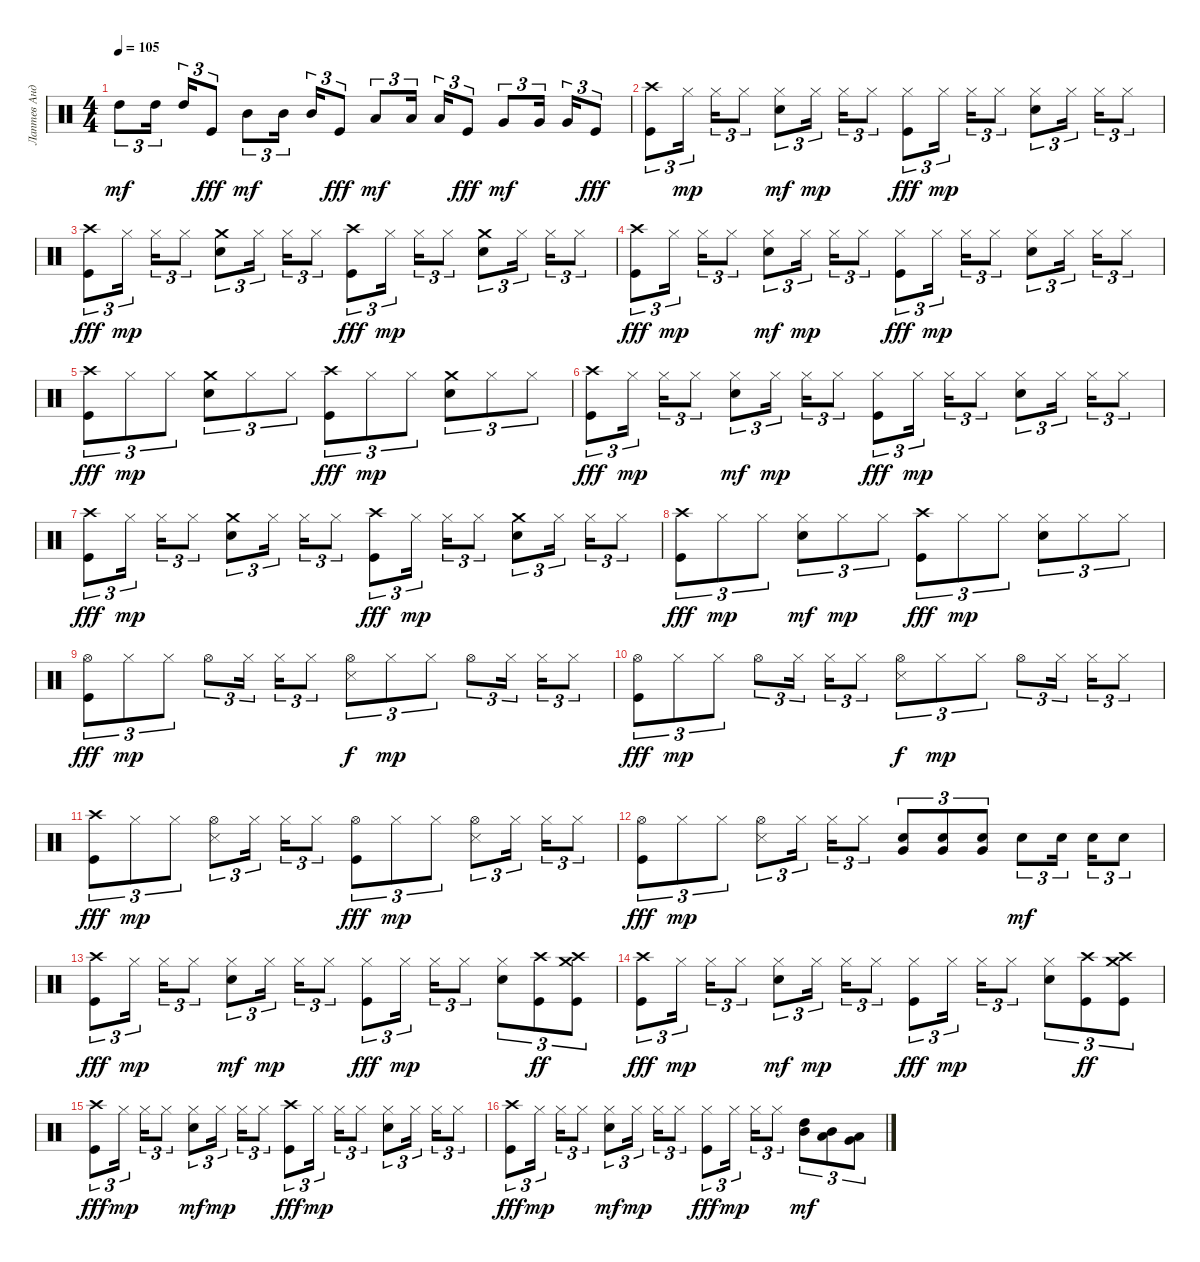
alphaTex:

\track ("Лаптев Андрей" "Лаптев Анд") {instrument percussion}
\staff {score}
\articulation defaults
\ts (4 4)
\tempo 105
\clef neutral
\ks c "High Tom (hit)".8{tu (3 2) dy mf} "High Tom (hit)".16{tu (3 2)} "High Tom (hit)".16{tu (3 2)} "Kick (hit)".8{tu (3 2) dy fff} "Mid Tom (hit)".8{tu (3 2) dy mf} "Mid Tom (hit)".16{tu (3 2)} "Mid Tom (hit)".16{tu (3 2)} "Kick (hit)".8{tu (3 2) dy fff} "Low Tom (hit)".8{tu (3 2) dy mf} "Low Tom (hit)".16{tu (3 2)} "Low Tom (hit)".16{tu (3 2)} "Kick (hit)".8{tu (3 2) dy fff} "Very Low Tom (hit)".8{tu (3 2) dy mf} "Very Low Tom (hit)".16{tu (3 2)} "Very Low Tom (hit)".16{tu (3 2)} "Kick (hit)".8{tu (3 2) dy fff}
|
("Crash high (hit)" "Kick (hit)").8{tu (3 2)} "Hi-Hat (closed)".16{tu (3 2) dy mp} "Hi-Hat (closed)".16{tu (3 2)} "Hi-Hat (closed)".8{tu (3 2)} ("Hi-Hat (closed)" "Electric Snare (hit)").8{tu (3 2) dy mf} "Hi-Hat (closed)".16{tu (3 2) dy mp} "Hi-Hat (closed)".16{tu (3 2)} "Hi-Hat (closed)".8{tu (3 2)} ("Hi-Hat (closed)" "Kick (hit)").8{tu (3 2) dy fff} "Hi-Hat (closed)".16{tu (3 2) dy mp} "Hi-Hat (closed)".16{tu (3 2)} "Hi-Hat (closed)".8{tu (3 2)} ("Hi-Hat (closed)" "Electric Snare (hit)").8{tu (3 2)} "Hi-Hat (closed)".16{tu (3 2)} "Hi-Hat (closed)".16{tu (3 2)} "Hi-Hat (closed)".8{tu (3 2)} |
("Crash high (hit)" "Kick (hit)").8{tu (3 2) dy fff} "Hi-Hat (closed)".16{tu (3 2) dy mp} "Hi-Hat (closed)".16{tu (3 2)} "Hi-Hat (closed)".8{tu (3 2)} ("Electric Snare (hit)" "Crash medium (hit)").8{tu (3 2)} "Hi-Hat (closed)".16{tu (3 2)} "Hi-Hat (closed)".16{tu (3 2)} "Hi-Hat (closed)".8{tu (3 2)} ("Crash high (hit)" "Kick (hit)").8{tu (3 2) dy fff} "Hi-Hat (closed)".16{tu (3 2) dy mp} "Hi-Hat (closed)".16{tu (3 2)} "Hi-Hat (closed)".8{tu (3 2)} ("Crash medium (hit)" "Electric Snare (hit)").8{tu (3 2)} "Hi-Hat (closed)".16{tu (3 2)} "Hi-Hat (closed)".16{tu (3 2)} "Hi-Hat (closed)".8{tu (3 2)} |
("Crash high (hit)" "Kick (hit)").8{tu (3 2) dy fff} "Hi-Hat (closed)".16{tu (3 2) dy mp} "Hi-Hat (closed)".16{tu (3 2)} "Hi-Hat (closed)".8{tu (3 2)} ("Hi-Hat (closed)" "Electric Snare (hit)").8{tu (3 2) dy mf} "Hi-Hat (closed)".16{tu (3 2) dy mp} "Hi-Hat (closed)".16{tu (3 2)} "Hi-Hat (closed)".8{tu (3 2)} ("Hi-Hat (closed)" "Kick (hit)").8{tu (3 2) dy fff} "Hi-Hat (closed)".16{tu (3 2) dy mp} "Hi-Hat (closed)".16{tu (3 2)} "Hi-Hat (closed)".8{tu (3 2)} ("Hi-Hat (closed)" "Electric Snare (hit)").8{tu (3 2)} "Hi-Hat (closed)".16{tu (3 2)} "Hi-Hat (closed)".16{tu (3 2)} "Hi-Hat (closed)".8{tu (3 2)} |
("Crash high (hit)" "Kick (hit)").8{tu (3 2) dy fff} "Hi-Hat (closed)".8{tu (3 2) dy mp} "Hi-Hat (closed)".8{tu (3 2)} ("Electric Snare (hit)" "Crash medium (hit)").8{tu (3 2)} "Hi-Hat (closed)".8{tu (3 2)} "Hi-Hat (closed)".8{tu (3 2)} ("Crash high (hit)" "Kick (hit)").8{tu (3 2) dy fff} "Hi-Hat (closed)".8{tu (3 2) dy mp} "Hi-Hat (closed)".8{tu (3 2)} ("Crash medium (hit)" "Electric Snare (hit)").8{tu (3 2)} "Hi-Hat (closed)".8{tu (3 2)} "Hi-Hat (closed)".8{tu (3 2)} |
("Crash high (hit)" "Kick (hit)").8{tu (3 2) dy fff} "Hi-Hat (closed)".16{tu (3 2) dy mp} "Hi-Hat (closed)".16{tu (3 2)} "Hi-Hat (closed)".8{tu (3 2)} ("Hi-Hat (closed)" "Electric Snare (hit)").8{tu (3 2) dy mf} "Hi-Hat (closed)".16{tu (3 2) dy mp} "Hi-Hat (closed)".16{tu (3 2)} "Hi-Hat (closed)".8{tu (3 2)} ("Hi-Hat (closed)" "Kick (hit)").8{tu (3 2) dy fff} "Hi-Hat (closed)".16{tu (3 2) dy mp} "Hi-Hat (closed)".16{tu (3 2)} "Hi-Hat (closed)".8{tu (3 2)} ("Hi-Hat (closed)" "Electric Snare (hit)").8{tu (3 2)} "Hi-Hat (closed)".16{tu (3 2)} "Hi-Hat (closed)".16{tu (3 2)} "Hi-Hat (closed)".8{tu (3 2)} |
("Crash high (hit)" "Kick (hit)").8{tu (3 2) dy fff} "Hi-Hat (closed)".16{tu (3 2) dy mp} "Hi-Hat (closed)".16{tu (3 2)} "Hi-Hat (closed)".8{tu (3 2)} ("Electric Snare (hit)" "Crash medium (hit)").8{tu (3 2)} "Hi-Hat (closed)".16{tu (3 2)} "Hi-Hat (closed)".16{tu (3 2)} "Hi-Hat (closed)".8{tu (3 2)} ("Crash high (hit)" "Kick (hit)").8{tu (3 2) dy fff} "Hi-Hat (closed)".16{tu (3 2) dy mp} "Hi-Hat (closed)".16{tu (3 2)} "Hi-Hat (closed)".8{tu (3 2)} ("Crash medium (hit)" "Electric Snare (hit)").8{tu (3 2)} "Hi-Hat (closed)".16{tu (3 2)} "Hi-Hat (closed)".16{tu (3 2)} "Hi-Hat (closed)".8{tu (3 2)} |
("Crash high (hit)" "Kick (hit)").8{tu (3 2) dy fff} "Hi-Hat (closed)".8{tu (3 2) dy mp} "Hi-Hat (closed)".8{tu (3 2)} ("Hi-Hat (closed)" "Electric Snare (hit)").8{tu (3 2) dy mf} "Hi-Hat (closed)".8{tu (3 2) dy mp} "Hi-Hat (closed)".8{tu (3 2)} ("Crash high (hit)" "Kick (hit)").8{tu (3 2) dy fff} "Hi-Hat (closed)".8{tu (3 2) dy mp} "Hi-Hat (closed)".8{tu (3 2)} ("Hi-Hat (closed)" "Electric Snare (hit)").8{tu (3 2)} "Hi-Hat (closed)".8{tu (3 2)} "Hi-Hat (closed)".8{tu (3 2)} |
("Hi-Hat (open)" "Kick (hit)").8{tu (3 2) dy fff} "Hi-Hat (closed)".8{tu (3 2) dy mp} "Hi-Hat (closed)".8{tu (3 2)} "Hi-Hat (open)".8{tu (3 2)} "Hi-Hat (closed)".16{tu (3 2)} "Hi-Hat (closed)".16{tu (3 2)} "Hi-Hat (closed)".8{tu (3 2)} ("Snare (side stick) 3" "Hi-Hat (open)").8{tu (3 2) dy f} "Hi-Hat (closed)".8{tu (3 2) dy mp} "Hi-Hat (closed)".8{tu (3 2)} "Hi-Hat (open)".8{tu (3 2)} "Hi-Hat (closed)".16{tu (3 2)} "Hi-Hat (closed)".16{tu (3 2)} "Hi-Hat (closed)".8{tu (3 2)} |
("Hi-Hat (open)" "Kick (hit)").8{tu (3 2) dy fff} "Hi-Hat (closed)".8{tu (3 2) dy mp} "Hi-Hat (closed)".8{tu (3 2)} "Hi-Hat (open)".8{tu (3 2)} "Hi-Hat (closed)".16{tu (3 2)} "Hi-Hat (closed)".16{tu (3 2)} "Hi-Hat (closed)".8{tu (3 2)} ("Snare (side stick) 3" "Hi-Hat (open)").8{tu (3 2) dy f} "Hi-Hat (closed)".8{tu (3 2) dy mp} "Hi-Hat (closed)".8{tu (3 2)} "Hi-Hat (open)".8{tu (3 2)} "Hi-Hat (closed)".16{tu (3 2)} "Hi-Hat (closed)".16{tu (3 2)} "Hi-Hat (closed)".8{tu (3 2)} |
("Crash high (hit)" "Kick (hit)").8{tu (3 2) dy fff} "Hi-Hat (closed)".8{tu (3 2) dy mp} "Hi-Hat (closed)".8{tu (3 2)} ("Hi-Hat (open)" "Snare (side stick) 3").8{tu (3 2)} "Hi-Hat (closed)".16{tu (3 2)} "Hi-Hat (closed)".16{tu (3 2)} "Hi-Hat (closed)".8{tu (3 2)} ("Hi-Hat (open)" "Kick (hit)").8{tu (3 2) dy fff} "Hi-Hat (closed)".8{tu (3 2) dy mp} "Hi-Hat (closed)".8{tu (3 2)} ("Snare (side stick) 3" "Hi-Hat (open)").8{tu (3 2)} "Hi-Hat (closed)".16{tu (3 2)} "Hi-Hat (closed)".16{tu (3 2)} "Hi-Hat (closed)".8{tu (3 2)} |
("Hi-Hat (open)" "Kick (hit)").8{tu (3 2) dy fff} "Hi-Hat (closed)".8{tu (3 2) dy mp} "Hi-Hat (closed)".8{tu (3 2)} ("Hi-Hat (open)" "Snare (side stick) 3").8{tu (3 2)} "Hi-Hat (closed)".16{tu (3 2)} "Hi-Hat (closed)".16{tu (3 2)} "Hi-Hat (closed)".8{tu (3 2)} ("Very Low Tom (hit)" "Electric Snare (hit)").8{tu (3 2)} ("Very Low Tom (hit)" "Electric Snare (hit)").8{tu (3 2)} ("Very Low Tom (hit)" "Electric Snare (hit)").8{tu (3 2)} "Electric Snare (hit)".8{tu (3 2) dy mf} "Electric Snare (hit)".16{tu (3 2)} "Electric Snare (hit)".16{tu (3 2)} "Electric Snare (hit)".8{tu (3 2)} |
("Crash high (hit)" "Kick (hit)").8{tu (3 2) dy fff} "Hi-Hat (closed)".16{tu (3 2) dy mp} "Hi-Hat (closed)".16{tu (3 2)} "Hi-Hat (closed)".8{tu (3 2)} ("Hi-Hat (closed)" "Electric Snare (hit)").8{tu (3 2) dy mf} "Hi-Hat (closed)".16{tu (3 2) dy mp} "Hi-Hat (closed)".16{tu (3 2)} "Hi-Hat (closed)".8{tu (3 2)} ("Hi-Hat (closed)" "Kick (hit)").8{tu (3 2) dy fff} "Hi-Hat (closed)".16{tu (3 2) dy mp} "Hi-Hat (closed)".16{tu (3 2)} "Hi-Hat (closed)".8{tu (3 2)} ("Hi-Hat (closed)" "Electric Snare (hit)").8{tu (3 2)} ("Crash high (hit)" "Kick (hit)").8{tu (3 2) dy ff} ("Crash high (hit)" "Crash medium (hit)" "Kick (hit)").8{tu (3 2)} |
("Crash high (hit)" "Kick (hit)").8{tu (3 2) dy fff} "Hi-Hat (closed)".16{tu (3 2) dy mp} "Hi-Hat (closed)".16{tu (3 2)} "Hi-Hat (closed)".8{tu (3 2)} ("Hi-Hat (closed)" "Electric Snare (hit)").8{tu (3 2) dy mf} "Hi-Hat (closed)".16{tu (3 2) dy mp} "Hi-Hat (closed)".16{tu (3 2)} "Hi-Hat (closed)".8{tu (3 2)} ("Hi-Hat (closed)" "Kick (hit)").8{tu (3 2) dy fff} "Hi-Hat (closed)".16{tu (3 2) dy mp} "Hi-Hat (closed)".16{tu (3 2)} "Hi-Hat (closed)".8{tu (3 2)} ("Hi-Hat (closed)" "Electric Snare (hit)").8{tu (3 2)} ("Crash high (hit)" "Kick (hit)").8{tu (3 2) dy ff} ("Crash high (hit)" "Crash medium (hit)" "Kick (hit)").8{tu (3 2)} |
("Crash high (hit)" "Kick (hit)").8{tu (3 2) dy fff} "Hi-Hat (closed)".16{tu (3 2) dy mp} "Hi-Hat (closed)".16{tu (3 2)} "Hi-Hat (closed)".8{tu (3 2)} ("Hi-Hat (closed)" "Electric Snare (hit)").8{tu (3 2) dy mf} "Hi-Hat (closed)".16{tu (3 2) dy mp} "Hi-Hat (closed)".16{tu (3 2)} "Hi-Hat (closed)".8{tu (3 2)} ("Crash high (hit)" "Kick (hit)").8{tu (3 2) dy fff} "Hi-Hat (closed)".16{tu (3 2) dy mp} "Hi-Hat (closed)".16{tu (3 2)} "Hi-Hat (closed)".8{tu (3 2)} ("Hi-Hat (closed)" "Electric Snare (hit)").8{tu (3 2)} "Hi-Hat (closed)".16{tu (3 2)} "Hi-Hat (closed)".16{tu (3 2)} "Hi-Hat (closed)".8{tu (3 2)} |
("Crash high (hit)" "Kick (hit)").8{tu (3 2) dy fff} "Hi-Hat (closed)".16{tu (3 2) dy mp} "Hi-Hat (closed)".16{tu (3 2)} "Hi-Hat (closed)".8{tu (3 2)} ("Hi-Hat (closed)" "Electric Snare (hit)").8{tu (3 2) dy mf} "Hi-Hat (closed)".16{tu (3 2) dy mp} "Hi-Hat (closed)".16{tu (3 2)} "Hi-Hat (closed)".8{tu (3 2)} ("Hi-Hat (closed)" "Kick (hit)").8{tu (3 2) dy fff} "Hi-Hat (closed)".16{tu (3 2) dy mp} "Hi-Hat (closed)".16{tu (3 2)} "Hi-Hat (closed)".8{tu (3 2)} ("Mid Tom (hit)" "High Tom (hit)").8{tu (3 2) dy mf} ("Low Tom (hit)" "Mid Tom (hit)").8{tu (3 2)} ("Low Tom (hit)" "Very Low Tom (hit)").8{tu (3 2)}
